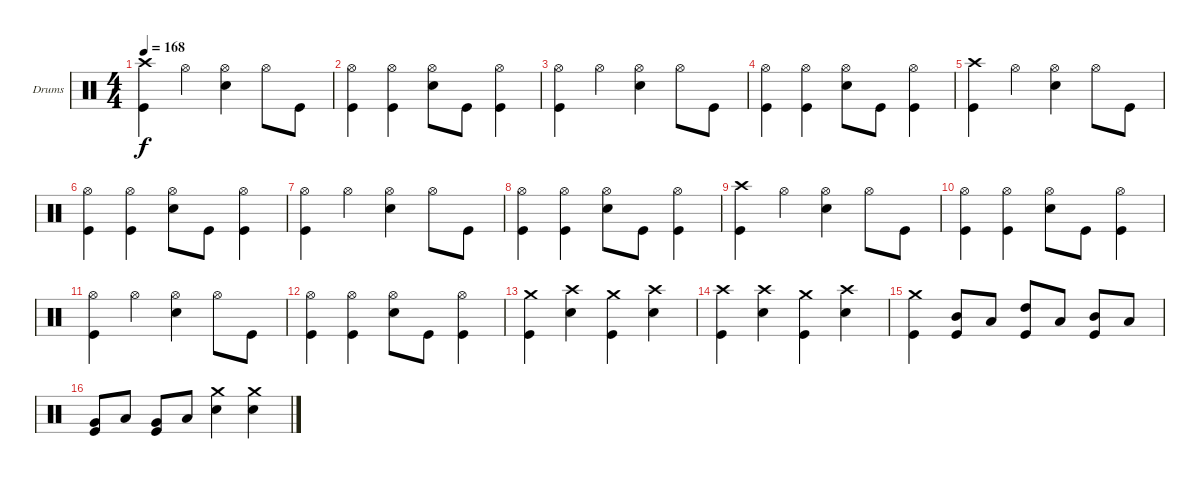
\bracketExtendMode groupsimilarinstruments
\firstSystemTrackNameOrientation horizontal
\otherSystemsTrackNameOrientation horizontal
\track ("Drumkit" "Drums") {instrument percussion}
\staff {score}
\articulation defaults
\ts (4 4)
\tempo 168
\clef neutral
\ks c
("Crash high (hit)" "Kick (hit)").4{dy f} "Hi-Hat (open)".4 ("Hi-Hat (open)" "Snare (hit) 2").4 "Hi-Hat (open)".8 "Kick (hit)".8 |
("Hi-Hat (open)" "Kick (hit)").4 ("Hi-Hat (open)" "Kick (hit)").4 ("Hi-Hat (open)" "Snare (hit) 2").8 "Kick (hit)".8 ("Hi-Hat (open)" "Kick (hit)").4 |
("Hi-Hat (open)" "Kick (hit)").4 "Hi-Hat (open)".4 ("Hi-Hat (open)" "Snare (hit) 2").4 "Hi-Hat (open)".8 "Kick (hit)".8 |
("Hi-Hat (open)" "Kick (hit)").4 ("Hi-Hat (open)" "Kick (hit)").4 ("Hi-Hat (open)" "Snare (hit) 2").8 "Kick (hit)".8 ("Hi-Hat (open)" "Kick (hit)").4 |
("Crash high (hit)" "Kick (hit)").4 "Hi-Hat (open)".4 ("Hi-Hat (open)" "Snare (hit) 2").4 "Hi-Hat (open)".8 "Kick (hit)".8 |
("Hi-Hat (open)" "Kick (hit)").4 ("Hi-Hat (open)" "Kick (hit)").4 ("Hi-Hat (open)" "Snare (hit) 2").8 "Kick (hit)".8 ("Hi-Hat (open)" "Kick (hit)").4 |
("Hi-Hat (open)" "Kick (hit)").4 "Hi-Hat (open)".4 ("Hi-Hat (open)" "Snare (hit) 2").4 "Hi-Hat (open)".8 "Kick (hit)".8 |
("Hi-Hat (open)" "Kick (hit)").4 ("Hi-Hat (open)" "Kick (hit)").4 ("Hi-Hat (open)" "Snare (hit) 2").8 "Kick (hit)".8 ("Hi-Hat (open)" "Kick (hit)").4 |
("Crash high (hit)" "Kick (hit)").4 "Hi-Hat (open)".4 ("Hi-Hat (open)" "Snare (hit) 2").4 "Hi-Hat (open)".8 "Kick (hit)".8 |
("Hi-Hat (open)" "Kick (hit)").4 ("Hi-Hat (open)" "Kick (hit)").4 ("Hi-Hat (open)" "Snare (hit) 2").8 "Kick (hit)".8 ("Hi-Hat (open)" "Kick (hit)").4 |
("Hi-Hat (open)" "Kick (hit)").4 "Hi-Hat (open)".4 ("Hi-Hat (open)" "Snare (hit) 2").4 "Hi-Hat (open)".8 "Kick (hit)".8 |
("Hi-Hat (open)" "Kick (hit)").4 ("Hi-Hat (open)" "Kick (hit)").4 ("Hi-Hat (open)" "Snare (hit) 2").8 "Kick (hit)".8 ("Hi-Hat (open)" "Kick (hit)").4 |
("Crash medium (hit)" "Kick (hit)").4 ("Crash high (hit)" "Snare (hit) 2").4 ("Crash medium (hit)" "Kick (hit)").4 ("Crash high (hit)" "Snare (hit) 2").4 |
("Crash high (hit)" "Kick (hit)").4 ("Crash high (hit)" "Snare (hit) 2").4 ("Crash medium (hit)" "Kick (hit)").4 ("Crash high (hit)" "Snare (hit) 2").4 |
("Crash medium (hit)" "Kick (hit)").4 ("Mid Tom (hit)" "Kick (hit)").8 "Low Tom (hit)".8 ("High Tom (hit)" "Kick (hit)").8 "Low Tom (hit)".8 ("Mid Tom (hit)" "Kick (hit)").8 "Low Tom (hit)".8 |
("Very Low Tom (hit)" "Kick (hit)").8 "Low Tom (hit)".8 ("Very Low Tom (hit)" "Kick (hit)").8 "Low Tom (hit)".8 ("Crash medium (hit)" "Snare (hit) 2").4 ("Crash medium (hit)" "Snare (hit) 2").4
